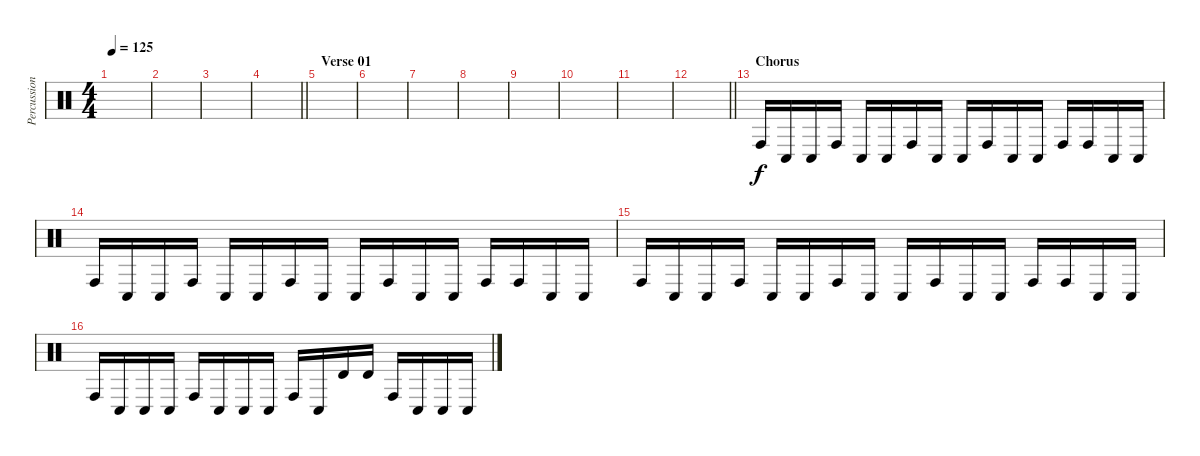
\track ("Percussion" "Percussion") {instrument percussion}
\staff {score}
\articulation defaults
\ts (4 4)
\tempo 125
\clef neutral
\ks c
|
|
|
\barLineRight lightlight
|
\section ("" "Verse 01")
|
|
|
|
|
|
|
\barLineRight lightlight
|
\section ("" "Chorus")
"Conga high (hit)".16 "Conga low (hit)".16 "Conga low (hit)".16 "Conga high (hit)".16 "Conga low (hit)".16 "Conga low (hit)".16 "Conga high (hit)".16 "Conga low (hit)".16 "Conga low (hit)".16 "Conga high (hit)".16 "Conga low (hit)".16 "Conga low (hit)".16 "Conga high (hit)".16 "Conga high (hit)".16 "Conga low (hit)".16 "Conga low (hit)".16 |
"Conga high (hit)".16 "Conga low (hit)".16 "Conga low (hit)".16 "Conga high (hit)".16 "Conga low (hit)".16 "Conga low (hit)".16 "Conga high (hit)".16 "Conga low (hit)".16 "Conga low (hit)".16 "Conga high (hit)".16 "Conga low (hit)".16 "Conga low (hit)".16 "Conga high (hit)".16 "Conga high (hit)".16 "Conga low (hit)".16 "Conga low (hit)".16 |
"Conga high (hit)".16 "Conga low (hit)".16 "Conga low (hit)".16 "Conga high (hit)".16 "Conga low (hit)".16 "Conga low (hit)".16 "Conga high (hit)".16 "Conga low (hit)".16 "Conga low (hit)".16 "Conga high (hit)".16 "Conga low (hit)".16 "Conga low (hit)".16 "Conga high (hit)".16 "Conga high (hit)".16 "Conga low (hit)".16 "Conga low (hit)".16 |
"Conga high (hit)".16 "Conga low (hit)".16 "Conga low (hit)".16 "Conga low (hit)".16 "Conga high (hit)".16 "Conga low (hit)".16 "Conga low (hit)".16 "Conga low (hit)".16 "Conga high (hit)".16 "Conga low (hit)".16 "Timbale high (hit)".16 "Timbale high (hit)".16 "Conga high (hit)".16 "Conga low (hit)".16 "Conga low (hit)".16 "Conga low (hit)".16
